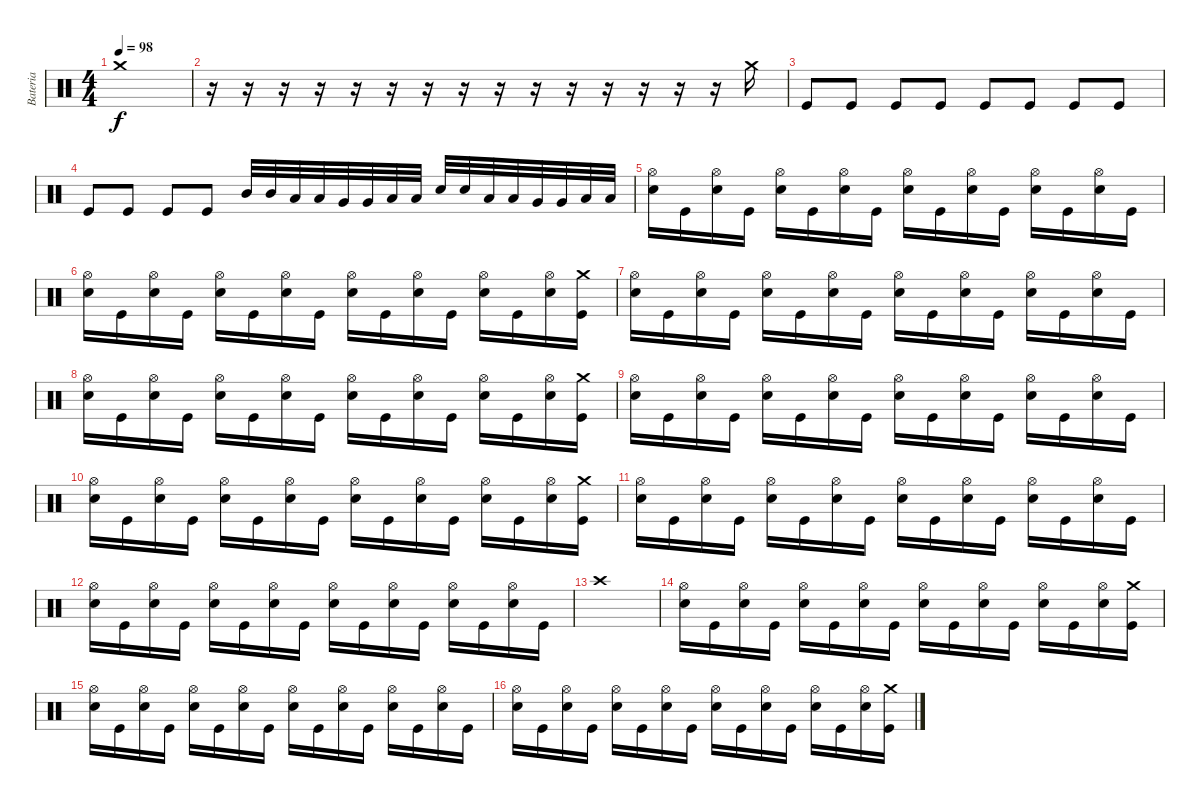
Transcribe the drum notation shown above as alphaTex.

\track ("Bateria" "Bateria") {instrument percussion}
\staff {score}
\articulation defaults
\ts (4 4)
\tempo 98
\clef neutral
\ks c "Crash medium (hit)".1{dy f}
|
r.16 r.16 r.16 r.16 r.16 r.16 r.16 r.16 r.16 r.16 r.16 r.16 r.16 r.16 r.16 "Crash medium (hit)".16 |
"Kick (hit)".8 "Kick (hit)".8 "Kick (hit)".8 "Kick (hit)".8 "Kick (hit)".8 "Kick (hit)".8 "Kick (hit)".8 "Kick (hit)".8 |
"Kick (hit)".8 "Kick (hit)".8 "Kick (hit)".8 "Kick (hit)".8 "Mid Tom (hit)".32 "Mid Tom (hit)".32 "Low Tom (hit)".32 "Low Tom (hit)".32 "Very Low Tom (hit)".32 "Very Low Tom (hit)".32 "Low Floor Tom (hit)".32 "Low Floor Tom (hit)".32 "Electric Snare (hit)".32 "Electric Snare (hit)".32 "Low Floor Tom (hit)".32 "Low Floor Tom (hit)".32 "Very Low Tom (hit)".32 "Very Low Tom (hit)".32 "Low Tom (hit)".32 "Low Tom (hit)".32 |
("Electric Snare (hit)" "Hi-Hat (open)").16 "Kick (hit)".16 ("Electric Snare (hit)" "Hi-Hat (open)").16 "Kick (hit)".16 ("Electric Snare (hit)" "Hi-Hat (open)").16 "Kick (hit)".16 ("Electric Snare (hit)" "Hi-Hat (open)").16 "Kick (hit)".16 ("Electric Snare (hit)" "Hi-Hat (open)").16 "Kick (hit)".16 ("Electric Snare (hit)" "Hi-Hat (open)").16 "Kick (hit)".16 ("Electric Snare (hit)" "Hi-Hat (open)").16 "Kick (hit)".16 ("Electric Snare (hit)" "Hi-Hat (open)").16 "Kick (hit)".16 |
("Electric Snare (hit)" "Hi-Hat (open)").16 "Kick (hit)".16 ("Electric Snare (hit)" "Hi-Hat (open)").16 "Kick (hit)".16 ("Electric Snare (hit)" "Hi-Hat (open)").16 "Kick (hit)".16 ("Electric Snare (hit)" "Hi-Hat (open)").16 "Kick (hit)".16 ("Electric Snare (hit)" "Hi-Hat (open)").16 "Kick (hit)".16 ("Electric Snare (hit)" "Hi-Hat (open)").16 "Kick (hit)".16 ("Electric Snare (hit)" "Hi-Hat (open)").16 "Kick (hit)".16 ("Electric Snare (hit)" "Hi-Hat (open)").16 ("Crash medium (hit)" "Kick (hit)").16 |
("Electric Snare (hit)" "Hi-Hat (open)").16 "Kick (hit)".16 ("Electric Snare (hit)" "Hi-Hat (open)").16 "Kick (hit)".16 ("Electric Snare (hit)" "Hi-Hat (open)").16 "Kick (hit)".16 ("Electric Snare (hit)" "Hi-Hat (open)").16 "Kick (hit)".16 ("Electric Snare (hit)" "Hi-Hat (open)").16 "Kick (hit)".16 ("Electric Snare (hit)" "Hi-Hat (open)").16 "Kick (hit)".16 ("Electric Snare (hit)" "Hi-Hat (open)").16 "Kick (hit)".16 ("Electric Snare (hit)" "Hi-Hat (open)").16 "Kick (hit)".16 |
("Electric Snare (hit)" "Hi-Hat (open)").16 "Kick (hit)".16 ("Electric Snare (hit)" "Hi-Hat (open)").16 "Kick (hit)".16 ("Electric Snare (hit)" "Hi-Hat (open)").16 "Kick (hit)".16 ("Electric Snare (hit)" "Hi-Hat (open)").16 "Kick (hit)".16 ("Electric Snare (hit)" "Hi-Hat (open)").16 "Kick (hit)".16 ("Electric Snare (hit)" "Hi-Hat (open)").16 "Kick (hit)".16 ("Electric Snare (hit)" "Hi-Hat (open)").16 "Kick (hit)".16 ("Electric Snare (hit)" "Hi-Hat (open)").16 ("Crash medium (hit)" "Kick (hit)").16 |
("Electric Snare (hit)" "Hi-Hat (open)").16 "Kick (hit)".16 ("Electric Snare (hit)" "Hi-Hat (open)").16 "Kick (hit)".16 ("Electric Snare (hit)" "Hi-Hat (open)").16 "Kick (hit)".16 ("Electric Snare (hit)" "Hi-Hat (open)").16 "Kick (hit)".16 ("Electric Snare (hit)" "Hi-Hat (open)").16 "Kick (hit)".16 ("Electric Snare (hit)" "Hi-Hat (open)").16 "Kick (hit)".16 ("Electric Snare (hit)" "Hi-Hat (open)").16 "Kick (hit)".16 ("Electric Snare (hit)" "Hi-Hat (open)").16 "Kick (hit)".16 |
("Electric Snare (hit)" "Hi-Hat (open)").16 "Kick (hit)".16 ("Electric Snare (hit)" "Hi-Hat (open)").16 "Kick (hit)".16 ("Electric Snare (hit)" "Hi-Hat (open)").16 "Kick (hit)".16 ("Electric Snare (hit)" "Hi-Hat (open)").16 "Kick (hit)".16 ("Electric Snare (hit)" "Hi-Hat (open)").16 "Kick (hit)".16 ("Electric Snare (hit)" "Hi-Hat (open)").16 "Kick (hit)".16 ("Electric Snare (hit)" "Hi-Hat (open)").16 "Kick (hit)".16 ("Electric Snare (hit)" "Hi-Hat (open)").16 ("Crash medium (hit)" "Kick (hit)").16 |
("Electric Snare (hit)" "Hi-Hat (open)").16 "Kick (hit)".16 ("Electric Snare (hit)" "Hi-Hat (open)").16 "Kick (hit)".16 ("Electric Snare (hit)" "Hi-Hat (open)").16 "Kick (hit)".16 ("Electric Snare (hit)" "Hi-Hat (open)").16 "Kick (hit)".16 ("Electric Snare (hit)" "Hi-Hat (open)").16 "Kick (hit)".16 ("Electric Snare (hit)" "Hi-Hat (open)").16 "Kick (hit)".16 ("Electric Snare (hit)" "Hi-Hat (open)").16 "Kick (hit)".16 ("Electric Snare (hit)" "Hi-Hat (open)").16 "Kick (hit)".16 |
("Electric Snare (hit)" "Hi-Hat (open)").16 "Kick (hit)".16 ("Electric Snare (hit)" "Hi-Hat (open)").16 "Kick (hit)".16 ("Electric Snare (hit)" "Hi-Hat (open)").16 "Kick (hit)".16 ("Electric Snare (hit)" "Hi-Hat (open)").16 "Kick (hit)".16 ("Electric Snare (hit)" "Hi-Hat (open)").16 "Kick (hit)".16 ("Electric Snare (hit)" "Hi-Hat (open)").16 "Kick (hit)".16 ("Electric Snare (hit)" "Hi-Hat (open)").16 "Kick (hit)".16 ("Electric Snare (hit)" "Hi-Hat (open)").16 "Kick (hit)".16 |
"Crash high (hit)".1 |
("Electric Snare (hit)" "Hi-Hat (open)").16 "Kick (hit)".16 ("Electric Snare (hit)" "Hi-Hat (open)").16 "Kick (hit)".16 ("Electric Snare (hit)" "Hi-Hat (open)").16 "Kick (hit)".16 ("Electric Snare (hit)" "Hi-Hat (open)").16 "Kick (hit)".16 ("Electric Snare (hit)" "Hi-Hat (open)").16 "Kick (hit)".16 ("Electric Snare (hit)" "Hi-Hat (open)").16 "Kick (hit)".16 ("Electric Snare (hit)" "Hi-Hat (open)").16 "Kick (hit)".16 ("Electric Snare (hit)" "Hi-Hat (open)").16 ("Crash medium (hit)" "Kick (hit)").16 |
("Electric Snare (hit)" "Hi-Hat (open)").16 "Kick (hit)".16 ("Electric Snare (hit)" "Hi-Hat (open)").16 "Kick (hit)".16 ("Electric Snare (hit)" "Hi-Hat (open)").16 "Kick (hit)".16 ("Electric Snare (hit)" "Hi-Hat (open)").16 "Kick (hit)".16 ("Electric Snare (hit)" "Hi-Hat (open)").16 "Kick (hit)".16 ("Electric Snare (hit)" "Hi-Hat (open)").16 "Kick (hit)".16 ("Electric Snare (hit)" "Hi-Hat (open)").16 "Kick (hit)".16 ("Electric Snare (hit)" "Hi-Hat (open)").16 "Kick (hit)".16 |
("Electric Snare (hit)" "Hi-Hat (open)").16 "Kick (hit)".16 ("Electric Snare (hit)" "Hi-Hat (open)").16 "Kick (hit)".16 ("Electric Snare (hit)" "Hi-Hat (open)").16 "Kick (hit)".16 ("Electric Snare (hit)" "Hi-Hat (open)").16 "Kick (hit)".16 ("Electric Snare (hit)" "Hi-Hat (open)").16 "Kick (hit)".16 ("Electric Snare (hit)" "Hi-Hat (open)").16 "Kick (hit)".16 ("Electric Snare (hit)" "Hi-Hat (open)").16 "Kick (hit)".16 ("Electric Snare (hit)" "Hi-Hat (open)").16 ("Crash medium (hit)" "Kick (hit)").16
